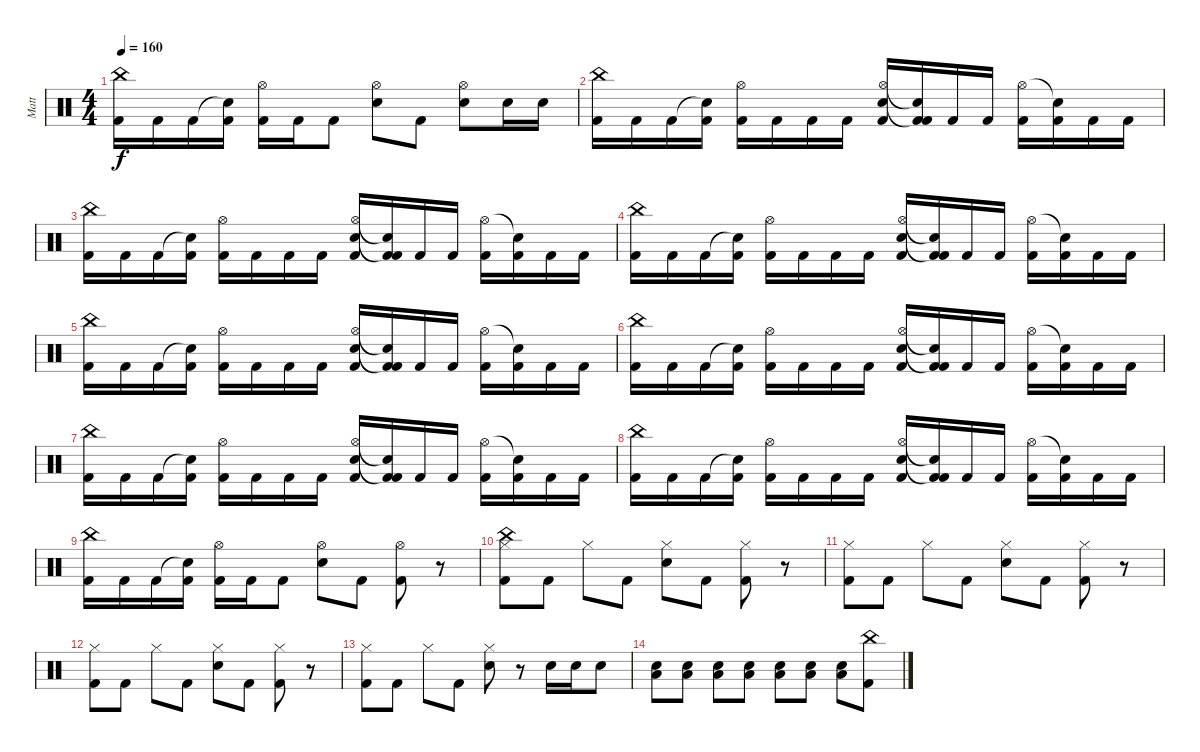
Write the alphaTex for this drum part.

\track ("Matt" "Matt") {instrument percussion}
\staff {score}
\articulation defaults
\ts (4 4)
\tempo 160
\clef neutral
\ks c
("China (hit)" "Kick (hit) 2").16{dy f} "Kick (hit) 2".16 "Kick (hit) 2".16 ("Snare (hit)"{t} "Kick (hit) 2").16 ("Hi-Hat (open)" "Kick (hit) 2").16 "Kick (hit) 2".16 "Kick (hit) 2".8 ("Hi-Hat (open)" "Electric Snare (hit)").8 "Kick (hit) 2".8 ("Hi-Hat (open)" "Electric Snare (hit)").8 "Electric Snare (hit)".16 "Electric Snare (hit)".16 |
("China (hit)" "Kick (hit) 2").16 "Kick (hit) 2".16 "Kick (hit) 2".16 ("Snare (hit)"{t} "Kick (hit) 2").16 ("Hi-Hat (open)" "Kick (hit) 2").16 "Kick (hit) 2".16 "Kick (hit) 2".16 "Kick (hit) 2".16 ("Kick (hit) 2" "Hi-Hat (open)" "Electric Snare (hit)").16 ("Kick (hit) 2" "Snare (hit)"{t} "Kick (hit) 2"{t}).16 "Kick (hit) 2".16 "Kick (hit) 2".16 ("Hi-Hat (open)" "Kick (hit) 2").16 ("Snare (hit)"{t} "Kick (hit) 2").16 "Kick (hit) 2".16 "Kick (hit) 2".16 |
("China (hit)" "Kick (hit) 2").16 "Kick (hit) 2".16 "Kick (hit) 2".16 ("Snare (hit)"{t} "Kick (hit) 2").16 ("Hi-Hat (open)" "Kick (hit) 2").16 "Kick (hit) 2".16 "Kick (hit) 2".16 "Kick (hit) 2".16 ("Kick (hit) 2" "Hi-Hat (open)" "Electric Snare (hit)").16 ("Kick (hit) 2" "Snare (hit)"{t} "Kick (hit) 2"{t}).16 "Kick (hit) 2".16 "Kick (hit) 2".16 ("Hi-Hat (open)" "Kick (hit) 2").16 ("Snare (hit)"{t} "Kick (hit) 2").16 "Kick (hit) 2".16 "Kick (hit) 2".16 |
("China (hit)" "Kick (hit) 2").16 "Kick (hit) 2".16 "Kick (hit) 2".16 ("Snare (hit)"{t} "Kick (hit) 2").16 ("Hi-Hat (open)" "Kick (hit) 2").16 "Kick (hit) 2".16 "Kick (hit) 2".16 "Kick (hit) 2".16 ("Kick (hit) 2" "Hi-Hat (open)" "Electric Snare (hit)").16 ("Kick (hit) 2" "Snare (hit)"{t} "Kick (hit) 2"{t}).16 "Kick (hit) 2".16 "Kick (hit) 2".16 ("Hi-Hat (open)" "Kick (hit) 2").16 ("Snare (hit)"{t} "Kick (hit) 2").16 "Kick (hit) 2".16 "Kick (hit) 2".16 |
("China (hit)" "Kick (hit) 2").16 "Kick (hit) 2".16 "Kick (hit) 2".16 ("Snare (hit)"{t} "Kick (hit) 2").16 ("Hi-Hat (open)" "Kick (hit) 2").16 "Kick (hit) 2".16 "Kick (hit) 2".16 "Kick (hit) 2".16 ("Kick (hit) 2" "Hi-Hat (open)" "Electric Snare (hit)").16 ("Kick (hit) 2" "Snare (hit)"{t} "Kick (hit) 2"{t}).16 "Kick (hit) 2".16 "Kick (hit) 2".16 ("Hi-Hat (open)" "Kick (hit) 2").16 ("Snare (hit)"{t} "Kick (hit) 2").16 "Kick (hit) 2".16 "Kick (hit) 2".16 |
("China (hit)" "Kick (hit) 2").16 "Kick (hit) 2".16 "Kick (hit) 2".16 ("Snare (hit)"{t} "Kick (hit) 2").16 ("Hi-Hat (open)" "Kick (hit) 2").16 "Kick (hit) 2".16 "Kick (hit) 2".16 "Kick (hit) 2".16 ("Kick (hit) 2" "Hi-Hat (open)" "Electric Snare (hit)").16 ("Kick (hit) 2" "Snare (hit)"{t} "Kick (hit) 2"{t}).16 "Kick (hit) 2".16 "Kick (hit) 2".16 ("Hi-Hat (open)" "Kick (hit) 2").16 ("Snare (hit)"{t} "Kick (hit) 2").16 "Kick (hit) 2".16 "Kick (hit) 2".16 |
("China (hit)" "Kick (hit) 2").16 "Kick (hit) 2".16 "Kick (hit) 2".16 ("Snare (hit)"{t} "Kick (hit) 2").16 ("Hi-Hat (open)" "Kick (hit) 2").16 "Kick (hit) 2".16 "Kick (hit) 2".16 "Kick (hit) 2".16 ("Kick (hit) 2" "Hi-Hat (open)" "Electric Snare (hit)").16 ("Kick (hit) 2" "Snare (hit)"{t} "Kick (hit) 2"{t}).16 "Kick (hit) 2".16 "Kick (hit) 2".16 ("Hi-Hat (open)" "Kick (hit) 2").16 ("Snare (hit)"{t} "Kick (hit) 2").16 "Kick (hit) 2".16 "Kick (hit) 2".16 |
("China (hit)" "Kick (hit) 2").16 "Kick (hit) 2".16 "Kick (hit) 2".16 ("Snare (hit)"{t} "Kick (hit) 2").16 ("Hi-Hat (open)" "Kick (hit) 2").16 "Kick (hit) 2".16 "Kick (hit) 2".16 "Kick (hit) 2".16 ("Kick (hit) 2" "Hi-Hat (open)" "Electric Snare (hit)").16 ("Kick (hit) 2" "Snare (hit)"{t} "Kick (hit) 2"{t}).16 "Kick (hit) 2".16 "Kick (hit) 2".16 ("Hi-Hat (open)" "Kick (hit) 2").16 ("Snare (hit)"{t} "Kick (hit) 2").16 "Kick (hit) 2".16 "Kick (hit) 2".16 |
("China (hit)" "Kick (hit) 2").16 "Kick (hit) 2".16 "Kick (hit) 2".16 ("Snare (hit)"{t} "Kick (hit) 2").16 ("Hi-Hat (open)" "Kick (hit) 2").16 "Kick (hit) 2".16 "Kick (hit) 2".8 ("Hi-Hat (open)" "Electric Snare (hit)").8 "Kick (hit) 2".8 ("Hi-Hat (open)" "Kick (hit) 2").8 r.8 |
("China (hit)" "Kick (hit) 2" "Hi-Hat (closed)").8 "Kick (hit) 2".8 "Hi-Hat (closed)".8 "Kick (hit) 2".8 ("Electric Snare (hit)" "Hi-Hat (closed)").8 "Kick (hit) 2".8 ("Kick (hit) 2" "Hi-Hat (closed)").8 r.8 |
("Kick (hit) 2" "Hi-Hat (closed)").8 "Kick (hit) 2".8 "Hi-Hat (closed)".8 "Kick (hit) 2".8 ("Electric Snare (hit)" "Hi-Hat (closed)").8 "Kick (hit) 2".8 ("Kick (hit) 2" "Hi-Hat (closed)").8 r.8 |
("Kick (hit) 2" "Hi-Hat (closed)").8 "Kick (hit) 2".8 "Hi-Hat (closed)".8 "Kick (hit) 2".8 ("Electric Snare (hit)" "Hi-Hat (closed)").8 "Kick (hit) 2".8 ("Kick (hit) 2" "Hi-Hat (closed)").8 r.8 |
("Kick (hit) 2" "Hi-Hat (closed)").8 "Kick (hit) 2".8 "Hi-Hat (closed)".8 "Kick (hit) 2".8 ("Electric Snare (hit)" "Hi-Hat (closed)").8 r.8 "Electric Snare (hit)".16 "Electric Snare (hit)".16 "Electric Snare (hit)".8 |
("Low Floor Tom (hit)" "Electric Snare (hit)").8 ("Low Floor Tom (hit)" "Electric Snare (hit)").8 ("Low Floor Tom (hit)" "Electric Snare (hit)").8 ("Low Floor Tom (hit)" "Electric Snare (hit)").8 ("Low Floor Tom (hit)" "Electric Snare (hit)").8 ("Low Floor Tom (hit)" "Electric Snare (hit)").8 ("Low Floor Tom (hit)" "Electric Snare (hit)").8 ("China (hit)" "Kick (hit) 2").8
